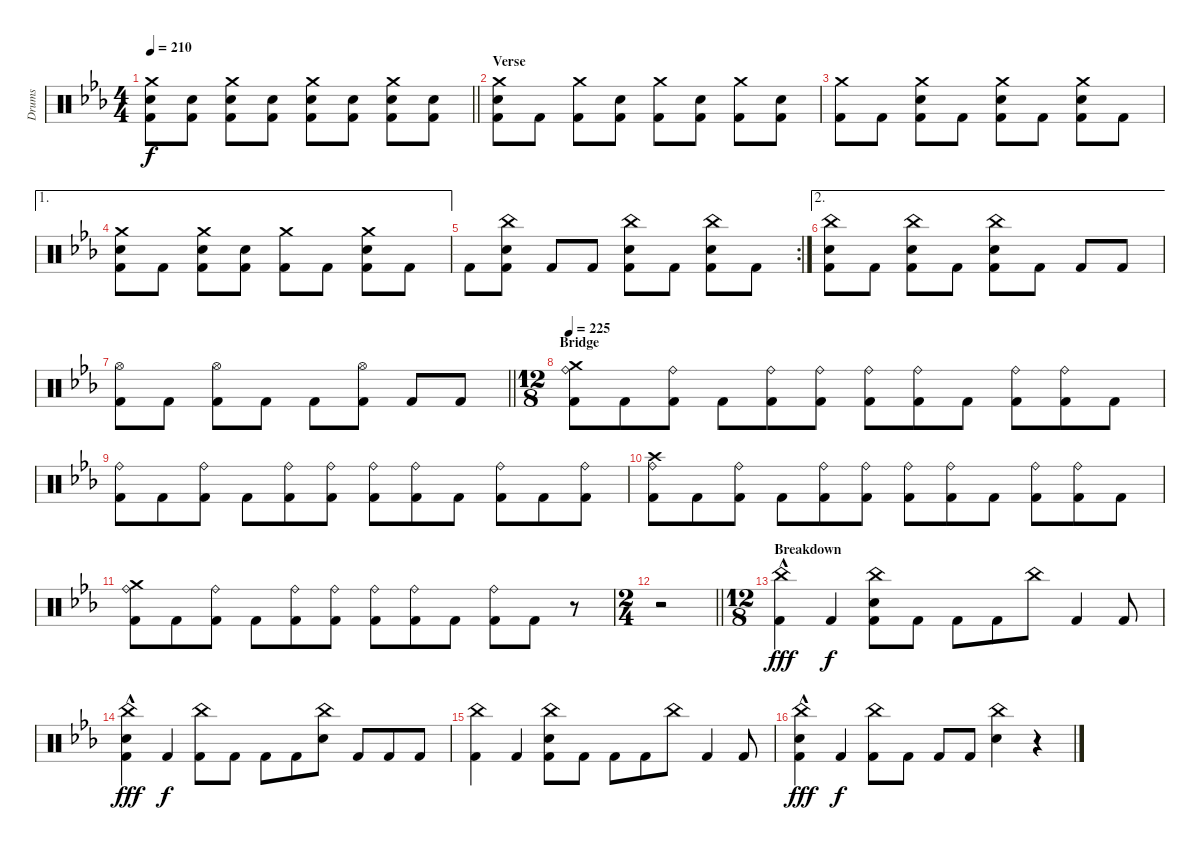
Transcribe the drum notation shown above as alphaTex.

\track ("Drums" "Drums") {instrument percussion}
\staff {score}
\articulation defaults
\ts (4 4)
\tempo 210
\clef neutral
\barLineRight lightlight
\ks cminor
("Crash medium (hit)" "Electric Snare (hit)" "Kick (hit) 2").8{dy f} ("Electric Snare (hit)" "Kick (hit) 2").8 ("Crash medium (hit)" "Electric Snare (hit)" "Kick (hit) 2").8 ("Electric Snare (hit)" "Kick (hit) 2").8 ("Crash medium (hit)" "Electric Snare (hit)" "Kick (hit) 2").8 ("Electric Snare (hit)" "Kick (hit) 2").8 ("Crash medium (hit)" "Electric Snare (hit)" "Kick (hit) 2").8 ("Electric Snare (hit)" "Kick (hit) 2").8 |
\section ("" "Verse")
("Crash medium (hit)" "Electric Snare (hit)" "Kick (hit) 2").8 "Kick (hit) 2".8 ("Crash medium (hit)" "Kick (hit) 2").8 ("Electric Snare (hit)" "Kick (hit) 2").8 ("Crash medium (hit)" "Kick (hit) 2").8 ("Electric Snare (hit)" "Kick (hit) 2").8 ("Crash medium (hit)" "Kick (hit) 2").8 ("Electric Snare (hit)" "Kick (hit) 2").8 |
("Crash medium (hit)" "Kick (hit) 2").8 "Kick (hit) 2".8 ("Crash medium (hit)" "Electric Snare (hit)" "Kick (hit) 2").8 "Kick (hit) 2".8 ("Crash medium (hit)" "Electric Snare (hit)" "Kick (hit) 2").8 "Kick (hit) 2".8 ("Crash medium (hit)" "Electric Snare (hit)" "Kick (hit) 2").8 "Kick (hit) 2".8 |
\ae 1
("Crash medium (hit)" "Electric Snare (hit)" "Kick (hit) 2").8 "Kick (hit) 2".8 ("Crash medium (hit)" "Electric Snare (hit)" "Kick (hit) 2").8 ("Electric Snare (hit)" "Kick (hit) 2").8 ("Crash medium (hit)" "Kick (hit) 2").8 "Kick (hit) 2".8 ("Crash medium (hit)" "Electric Snare (hit)" "Kick (hit) 2").8 "Kick (hit) 2".8 |
\rc 2 "Kick (hit) 2".8
("China (hit)" "Electric Snare (hit)" "Kick (hit) 2").8 "Kick (hit) 2".8 "Kick (hit) 2".8 ("China (hit)" "Electric Snare (hit)" "Kick (hit) 2").8 "Kick (hit) 2".8 ("China (hit)" "Electric Snare (hit)" "Kick (hit) 2").8 "Kick (hit) 2".8 |
\ae 2
("China (hit)" "Electric Snare (hit)" "Kick (hit) 2").8 "Kick (hit) 2".8 ("China (hit)" "Electric Snare (hit)" "Kick (hit) 2").8 "Kick (hit) 2".8 ("China (hit)" "Electric Snare (hit)" "Kick (hit) 2").8 "Kick (hit) 2".8 "Kick (hit) 2".8 "Kick (hit) 2".8 |
\barLineRight lightlight
("Hi-Hat (open)" "Kick (hit) 2").8 "Kick (hit) 2".8 ("Hi-Hat (open)" "Kick (hit) 2").8 "Kick (hit) 2".8 "Kick (hit) 2".8 ("Hi-Hat (open)" "Kick (hit) 2").8 "Kick (hit) 2".8 "Kick (hit) 2".8 |
\ts (12 8)
\section ("" "Bridge")
\tempo 225
("Crash medium (hit)" "Ride (bell)" "Kick (hit) 2").8{volume 12} "Kick (hit) 2".8 ("Ride (bell)" "Kick (hit) 2").8 "Kick (hit) 2".8 ("Ride (bell)" "Kick (hit) 2").8 ("Ride (bell)" "Kick (hit) 2").8 ("Ride (bell)" "Kick (hit) 2").8 ("Ride (bell)" "Kick (hit) 2").8 "Kick (hit) 2".8 ("Ride (bell)" "Kick (hit) 2").8 ("Ride (bell)" "Kick (hit) 2").8 "Kick (hit) 2".8 |
("Ride (bell)" "Kick (hit) 2").8 "Kick (hit) 2".8 ("Ride (bell)" "Kick (hit) 2").8 "Kick (hit) 2".8 ("Ride (bell)" "Kick (hit) 2").8 ("Ride (bell)" "Kick (hit) 2").8 ("Ride (bell)" "Kick (hit) 2").8 ("Ride (bell)" "Kick (hit) 2").8 "Kick (hit) 2".8 ("Ride (bell)" "Kick (hit) 2").8 "Kick (hit) 2".8 ("Ride (bell)" "Kick (hit) 2").8 |
("Crash high (hit)" "Ride (bell)" "Kick (hit) 2").8 "Kick (hit) 2".8 ("Ride (bell)" "Kick (hit) 2").8 "Kick (hit) 2".8 ("Ride (bell)" "Kick (hit) 2").8 ("Ride (bell)" "Kick (hit) 2").8 ("Ride (bell)" "Kick (hit) 2").8 ("Ride (bell)" "Kick (hit) 2").8 "Kick (hit) 2".8 ("Ride (bell)" "Kick (hit) 2").8 ("Ride (bell)" "Kick (hit) 2").8 "Kick (hit) 2".8 |
("Crash medium (hit)" "Ride (bell)" "Kick (hit) 2").8 "Kick (hit) 2".8 ("Ride (bell)" "Kick (hit) 2").8 "Kick (hit) 2".8 ("Ride (bell)" "Kick (hit) 2").8 ("Ride (bell)" "Kick (hit) 2").8 ("Ride (bell)" "Kick (hit) 2").8 ("Ride (bell)" "Kick (hit) 2").8 "Kick (hit) 2".8 ("Ride (bell)" "Kick (hit) 2").8 "Kick (hit) 2".8 r.8{volume 0} |
\ts (2 4)
\barLineRight lightlight
r.2 |
\ts (12 8)
\section ("" "Breakdown")
("China (hit)" "Kick (hit) 2"{hac}).4{dy fff volume 14} "Kick (hit) 2".4{dy f} ("China (hit)" "Electric Snare (hit)" "Kick (hit) 2").8 "Kick (hit) 2".8 "Kick (hit) 2".8 "Kick (hit) 2".8 "China (hit)".8 "Kick (hit) 2".4 "Kick (hit) 2".8 |
("China (hit)" "Electric Snare (hit)" "Kick (hit) 2"{hac}).4{dy fff} "Kick (hit) 2".4{dy f} ("China (hit)" "Kick (hit) 2").8 "Kick (hit) 2".8 "Kick (hit) 2".8 "Kick (hit) 2".8 ("China (hit)" "Electric Snare (hit)").8 "Kick (hit) 2".8 "Kick (hit) 2".8 "Kick (hit) 2".8 |
("China (hit)" "Kick (hit) 2").4 "Kick (hit) 2".4 ("China (hit)" "Electric Snare (hit)" "Kick (hit) 2").8 "Kick (hit) 2".8 "Kick (hit) 2".8 "Kick (hit) 2".8 "China (hit)".8 "Kick (hit) 2".4 "Kick (hit) 2".8 |
("China (hit)" "Electric Snare (hit)" "Kick (hit) 2"{hac}).4{dy fff} "Kick (hit) 2".4{dy f} ("China (hit)" "Kick (hit) 2").8 "Kick (hit) 2".8 "Kick (hit) 2".8 "Kick (hit) 2".8 ("China (hit)" "Electric Snare (hit)").4 r.4{volume 0}
